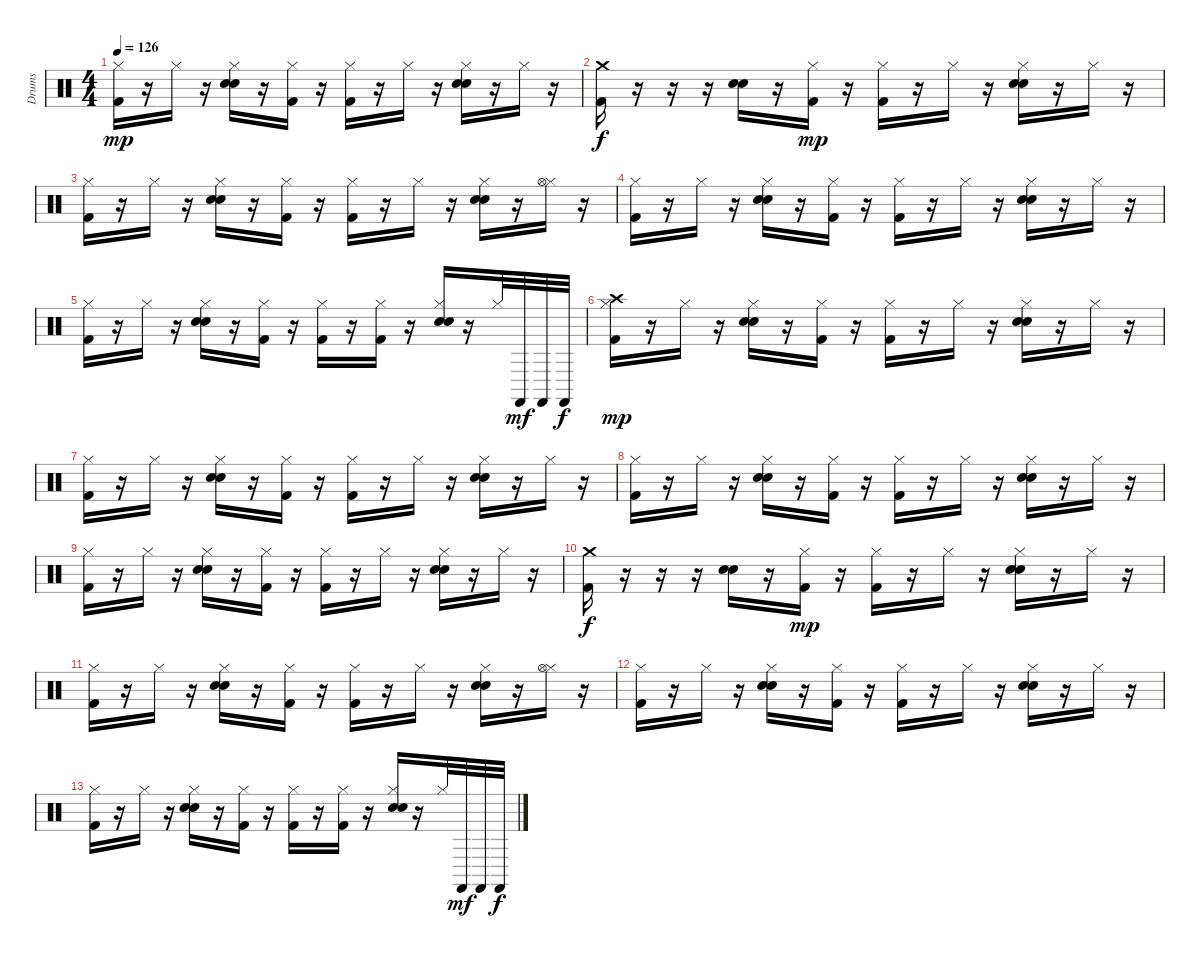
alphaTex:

\track ("Drums" "Drums") {instrument percussion}
\staff {score}
\articulation defaults
\ts (4 4)
\tempo 126
\clef neutral
\ks c
("Hi-Hat (closed)" "Kick (hit) 2").16{dy mp} r.16 "Hi-Hat (closed)".16 r.16 ("Hi-Hat (closed)" "Snare (hit) 2" "Electric Snare (hit)").16 r.16 ("Hi-Hat (closed)" "Kick (hit) 2").16 r.16 ("Hi-Hat (closed)" "Kick (hit) 2").16 r.16 "Hi-Hat (closed)".16 r.16 ("Hi-Hat (closed)" "Snare (hit) 2" "Electric Snare (hit)").16 r.16 "Hi-Hat (closed)".16 r.16 |
("Crash medium (hit)" "Kick (hit) 2").16{dy f} r.16 r.16 r.16 ("Snare (hit) 2" "Electric Snare (hit)").16 r.16 ("Hi-Hat (closed)" "Kick (hit) 2").16{dy mp} r.16 ("Hi-Hat (closed)" "Kick (hit) 2").16 r.16 "Hi-Hat (closed)".16 r.16 ("Hi-Hat (closed)" "Snare (hit) 2" "Electric Snare (hit)").16 r.16 "Hi-Hat (closed)".16 r.16 |
("Hi-Hat (closed)" "Kick (hit) 2").16{volume 4} r.16 "Hi-Hat (closed)".16 r.16 ("Hi-Hat (closed)" "Snare (hit) 2" "Electric Snare (hit)").16 r.16 ("Hi-Hat (closed)" "Kick (hit) 2").16 r.16 ("Hi-Hat (closed)" "Kick (hit) 2").16 r.16 "Hi-Hat (closed)".16 r.16 ("Hi-Hat (closed)" "Snare (hit) 2" "Electric Snare (hit)").16 r.16 ("Hi-Hat (closed)" "Hi-Hat (open)").16 r.16 |
("Hi-Hat (closed)" "Kick (hit) 2").16 r.16 "Hi-Hat (closed)".16 r.16 ("Hi-Hat (closed)" "Snare (hit) 2" "Electric Snare (hit)").16 r.16 ("Hi-Hat (closed)" "Kick (hit) 2").16 r.16 ("Hi-Hat (closed)" "Kick (hit) 2").16 r.16 "Hi-Hat (closed)".16 r.16 ("Hi-Hat (closed)" "Snare (hit) 2" "Electric Snare (hit)").16 r.16 "Hi-Hat (closed)".16 r.16 |
("Hi-Hat (closed)" "Kick (hit) 2").16 r.16 "Hi-Hat (closed)".16 r.16 ("Hi-Hat (closed)" "Snare (hit) 2" "Electric Snare (hit)").16 r.16 ("Hi-Hat (closed)" "Kick (hit) 2").16 r.16 ("Hi-Hat (closed)" "Kick (hit) 2").16 r.16 ("Hi-Hat (closed)" "Kick (hit) 2").16 r.16 ("Hi-Hat (closed)" "Snare (hit) 2" "Electric Snare (hit)").16 r.16 "Hi-Hat (closed)".32 "Castanets (hit)".32{dy mf} "Castanets (hit)".32 "Castanets (hit)".32{dy f} |
("Hi-Hat (closed)" "Crash high (hit)" "Kick (hit) 2").16{dy mp volume 0} r.16 "Hi-Hat (closed)".16 r.16 ("Hi-Hat (closed)" "Snare (hit) 2" "Electric Snare (hit)").16 r.16 ("Hi-Hat (closed)" "Kick (hit) 2").16 r.16 ("Hi-Hat (closed)" "Kick (hit) 2").16 r.16 "Hi-Hat (closed)".16 r.16 ("Hi-Hat (closed)" "Snare (hit) 2" "Electric Snare (hit)").16 r.16 "Hi-Hat (closed)".16 r.16 |
("Hi-Hat (closed)" "Kick (hit) 2").16 r.16 "Hi-Hat (closed)".16 r.16 ("Hi-Hat (closed)" "Snare (hit) 2" "Electric Snare (hit)").16 r.16 ("Hi-Hat (closed)" "Kick (hit) 2").16 r.16 ("Hi-Hat (closed)" "Kick (hit) 2").16 r.16 "Hi-Hat (closed)".16 r.16 ("Hi-Hat (closed)" "Snare (hit) 2" "Electric Snare (hit)").16 r.16 "Hi-Hat (closed)".16 r.16 |
("Hi-Hat (closed)" "Kick (hit) 2").16 r.16 "Hi-Hat (closed)".16 r.16 ("Hi-Hat (closed)" "Snare (hit) 2" "Electric Snare (hit)").16 r.16 ("Hi-Hat (closed)" "Kick (hit) 2").16 r.16 ("Hi-Hat (closed)" "Kick (hit) 2").16 r.16 "Hi-Hat (closed)".16 r.16 ("Hi-Hat (closed)" "Snare (hit) 2" "Electric Snare (hit)").16 r.16 "Hi-Hat (closed)".16 r.16 |
("Hi-Hat (closed)" "Kick (hit) 2").16 r.16 "Hi-Hat (closed)".16 r.16 ("Hi-Hat (closed)" "Snare (hit) 2" "Electric Snare (hit)").16 r.16 ("Hi-Hat (closed)" "Kick (hit) 2").16 r.16 ("Hi-Hat (closed)" "Kick (hit) 2").16 r.16 "Hi-Hat (closed)".16 r.16 ("Hi-Hat (closed)" "Snare (hit) 2" "Electric Snare (hit)").16 r.16 "Hi-Hat (closed)".16 r.16 |
("Crash medium (hit)" "Kick (hit) 2").16{dy f} r.16 r.16 r.16 ("Snare (hit) 2" "Electric Snare (hit)").16 r.16 ("Hi-Hat (closed)" "Kick (hit) 2").16{dy mp} r.16 ("Hi-Hat (closed)" "Kick (hit) 2").16 r.16 "Hi-Hat (closed)".16 r.16 ("Hi-Hat (closed)" "Snare (hit) 2" "Electric Snare (hit)").16 r.16 "Hi-Hat (closed)".16 r.16 |
("Hi-Hat (closed)" "Kick (hit) 2").16 r.16 "Hi-Hat (closed)".16 r.16 ("Hi-Hat (closed)" "Snare (hit) 2" "Electric Snare (hit)").16 r.16 ("Hi-Hat (closed)" "Kick (hit) 2").16 r.16 ("Hi-Hat (closed)" "Kick (hit) 2").16 r.16 "Hi-Hat (closed)".16 r.16 ("Hi-Hat (closed)" "Snare (hit) 2" "Electric Snare (hit)").16 r.16 ("Hi-Hat (closed)" "Hi-Hat (open)").16 r.16 |
("Hi-Hat (closed)" "Kick (hit) 2").16 r.16 "Hi-Hat (closed)".16 r.16 ("Hi-Hat (closed)" "Snare (hit) 2" "Electric Snare (hit)").16 r.16 ("Hi-Hat (closed)" "Kick (hit) 2").16 r.16 ("Hi-Hat (closed)" "Kick (hit) 2").16 r.16 "Hi-Hat (closed)".16 r.16 ("Hi-Hat (closed)" "Snare (hit) 2" "Electric Snare (hit)").16 r.16 "Hi-Hat (closed)".16 r.16 |
("Hi-Hat (closed)" "Kick (hit) 2").16 r.16 "Hi-Hat (closed)".16 r.16 ("Hi-Hat (closed)" "Snare (hit) 2" "Electric Snare (hit)").16 r.16 ("Hi-Hat (closed)" "Kick (hit) 2").16 r.16 ("Hi-Hat (closed)" "Kick (hit) 2").16 r.16 ("Hi-Hat (closed)" "Kick (hit) 2").16 r.16 ("Hi-Hat (closed)" "Snare (hit) 2" "Electric Snare (hit)").16 r.16 "Hi-Hat (closed)".32 "Castanets (hit)".32{dy mf} "Castanets (hit)".32 "Castanets (hit)".32{dy f}
